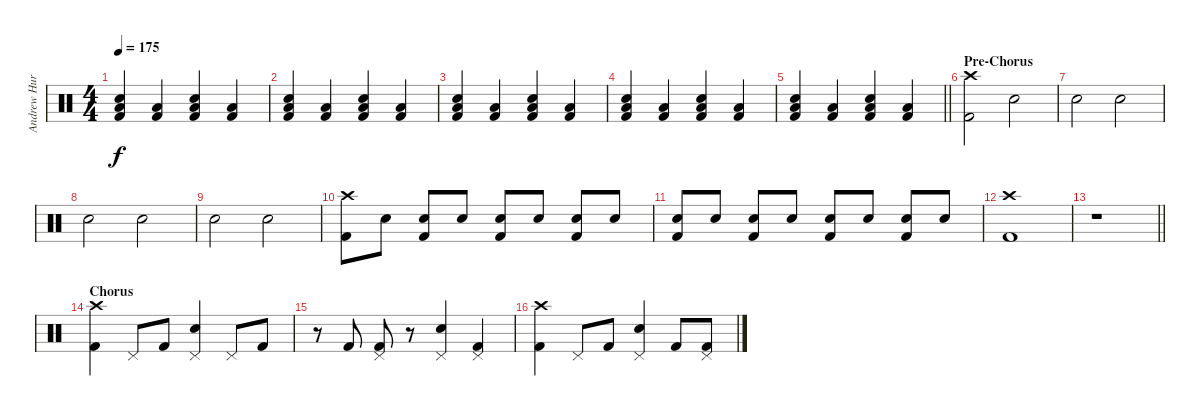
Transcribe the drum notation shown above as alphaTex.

\track ("Andrew Hurley (Drums)" "Andrew Hur") {instrument percussion}
\staff {score}
\articulation defaults
\ts (4 4)
\tempo 175
\clef neutral
\ks c
("Low Floor Tom (hit)" "Snare (hit) 2" "Kick (hit) 2").4{dy f} ("Low Floor Tom (hit)" "Kick (hit) 2").4 ("Low Floor Tom (hit)" "Snare (hit) 2" "Kick (hit) 2").4 ("Low Floor Tom (hit)" "Kick (hit) 2").4 |
("Low Floor Tom (hit)" "Snare (hit) 2" "Kick (hit) 2").4 ("Low Floor Tom (hit)" "Kick (hit) 2").4 ("Low Floor Tom (hit)" "Snare (hit) 2" "Kick (hit) 2").4 ("Low Floor Tom (hit)" "Kick (hit) 2").4 |
("Low Floor Tom (hit)" "Snare (hit) 2" "Kick (hit) 2").4 ("Low Floor Tom (hit)" "Kick (hit) 2").4 ("Low Floor Tom (hit)" "Snare (hit) 2" "Kick (hit) 2").4 ("Low Floor Tom (hit)" "Kick (hit) 2").4 |
("Low Floor Tom (hit)" "Snare (hit) 2" "Kick (hit) 2").4 ("Low Floor Tom (hit)" "Kick (hit) 2").4 ("Low Floor Tom (hit)" "Snare (hit) 2" "Kick (hit) 2").4 ("Low Floor Tom (hit)" "Kick (hit) 2").4 |
\barLineRight lightlight
("Low Floor Tom (hit)" "Snare (hit) 2" "Kick (hit) 2").4 ("Low Floor Tom (hit)" "Kick (hit) 2").4 ("Low Floor Tom (hit)" "Snare (hit) 2" "Kick (hit) 2").4 ("Low Floor Tom (hit)" "Kick (hit) 2").4 |
\section ("" "Pre-Chorus")
("Crash high (hit)" "Kick (hit) 2").2 "Snare (hit) 2".2 |
"Snare (hit) 2".2 "Snare (hit) 2".2 |
"Snare (hit) 2".2 "Snare (hit) 2".2 |
"Snare (hit) 2".2 "Snare (hit) 2".2 |
("Crash high (hit)" "Kick (hit) 2").8 "Snare (hit) 2".8 ("Snare (hit) 2" "Kick (hit) 2").8 "Snare (hit) 2".8 ("Snare (hit) 2" "Kick (hit) 2").8 "Snare (hit) 2".8 ("Snare (hit) 2" "Kick (hit) 2").8 "Snare (hit) 2".8 |
("Snare (hit) 2" "Kick (hit) 2").8 "Snare (hit) 2".8 ("Snare (hit) 2" "Kick (hit) 2").8 "Snare (hit) 2".8 ("Snare (hit) 2" "Kick (hit) 2").8 "Snare (hit) 2".8 ("Snare (hit) 2" "Kick (hit) 2").8 "Snare (hit) 2".8 |
("Crash high (hit)" "Kick (hit) 2").1 |
\barLineRight lightlight
r.1 |
\section ("" "Chorus")
("Crash high (hit)" "Kick (hit) 2").4 "Pedal Hi-Hat (hit)".8 "Kick (hit) 2".8 ("Pedal Hi-Hat (hit)" "Snare (hit) 2").4 "Pedal Hi-Hat (hit)".8 "Kick (hit) 2".8 |
r.8 "Kick (hit) 2".8 ("Pedal Hi-Hat (hit)" "Kick (hit) 2").8 r.8 ("Pedal Hi-Hat (hit)" "Snare (hit) 2").4 ("Pedal Hi-Hat (hit)" "Kick (hit) 2").4 |
("Crash high (hit)" "Kick (hit) 2").4 "Pedal Hi-Hat (hit)".8 "Kick (hit) 2".8 ("Pedal Hi-Hat (hit)" "Snare (hit) 2").4 "Kick (hit) 2".8 ("Pedal Hi-Hat (hit)" "Kick (hit) 2").8
